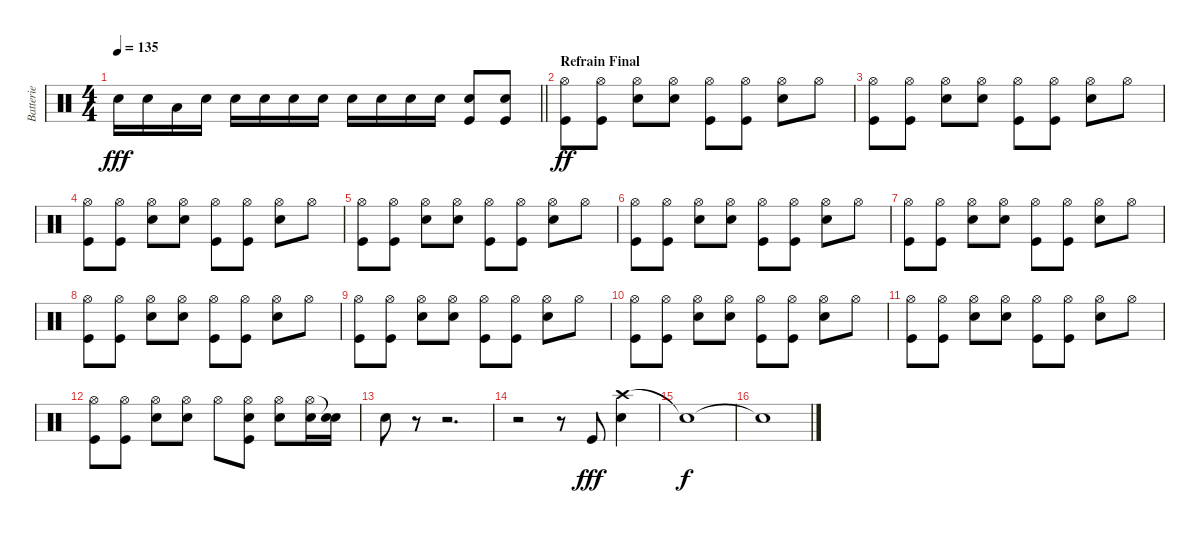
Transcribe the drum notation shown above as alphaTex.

\track ("Batterie" "Batterie") {instrument percussion}
\staff {score}
\articulation defaults
\ts (4 4)
\tempo 135
\clef neutral
\barLineRight lightlight
\ks c "Electric Snare (hit)".16{dy fff} "Electric Snare (hit)".16 "Low Tom (hit)".16 "Electric Snare (hit)".16 "Electric Snare (hit)".16 "Electric Snare (hit)".16 "Electric Snare (hit)".16 "Electric Snare (hit)".16 "Electric Snare (hit)".16 "Electric Snare (hit)".16 "Electric Snare (hit)".16 "Electric Snare (hit)".16
("Electric Snare (hit)" "Kick (hit)").8 ("Electric Snare (hit)" "Kick (hit)").8 |
\section ("" "Refrain Final")
("Hi-Hat (open)" "Kick (hit)").8{dy ff} ("Hi-Hat (open)" "Kick (hit)").8 ("Hi-Hat (open)" "Electric Snare (hit)").8 ("Hi-Hat (open)" "Electric Snare (hit)").8 ("Hi-Hat (open)" "Kick (hit)").8 ("Hi-Hat (open)" "Kick (hit)").8 ("Hi-Hat (open)" "Electric Snare (hit)").8 "Hi-Hat (open)".8 |
("Hi-Hat (open)" "Kick (hit)").8 ("Hi-Hat (open)" "Kick (hit)").8 ("Hi-Hat (open)" "Electric Snare (hit)").8 ("Hi-Hat (open)" "Electric Snare (hit)").8 ("Hi-Hat (open)" "Kick (hit)").8 ("Hi-Hat (open)" "Kick (hit)").8 ("Hi-Hat (open)" "Electric Snare (hit)").8 "Hi-Hat (open)".8 |
("Hi-Hat (open)" "Kick (hit)").8 ("Hi-Hat (open)" "Kick (hit)").8 ("Hi-Hat (open)" "Electric Snare (hit)").8 ("Hi-Hat (open)" "Electric Snare (hit)").8 ("Hi-Hat (open)" "Kick (hit)").8 ("Hi-Hat (open)" "Kick (hit)").8 ("Hi-Hat (open)" "Electric Snare (hit)").8 "Hi-Hat (open)".8 |
("Hi-Hat (open)" "Kick (hit)").8 ("Hi-Hat (open)" "Kick (hit)").8 ("Hi-Hat (open)" "Electric Snare (hit)").8 ("Hi-Hat (open)" "Electric Snare (hit)").8 ("Hi-Hat (open)" "Kick (hit)").8 ("Hi-Hat (open)" "Kick (hit)").8 ("Hi-Hat (open)" "Electric Snare (hit)").8 "Hi-Hat (open)".8 |
("Hi-Hat (open)" "Kick (hit)").8 ("Hi-Hat (open)" "Kick (hit)").8 ("Hi-Hat (open)" "Electric Snare (hit)").8 ("Hi-Hat (open)" "Electric Snare (hit)").8 ("Hi-Hat (open)" "Kick (hit)").8 ("Hi-Hat (open)" "Kick (hit)").8 ("Hi-Hat (open)" "Electric Snare (hit)").8 "Hi-Hat (open)".8 |
("Hi-Hat (open)" "Kick (hit)").8 ("Hi-Hat (open)" "Kick (hit)").8 ("Hi-Hat (open)" "Electric Snare (hit)").8 ("Hi-Hat (open)" "Electric Snare (hit)").8 ("Hi-Hat (open)" "Kick (hit)").8 ("Hi-Hat (open)" "Kick (hit)").8 ("Hi-Hat (open)" "Electric Snare (hit)").8 "Hi-Hat (open)".8 |
("Hi-Hat (open)" "Kick (hit)").8 ("Hi-Hat (open)" "Kick (hit)").8 ("Hi-Hat (open)" "Electric Snare (hit)").8 ("Hi-Hat (open)" "Electric Snare (hit)").8 ("Hi-Hat (open)" "Kick (hit)").8 ("Hi-Hat (open)" "Kick (hit)").8 ("Hi-Hat (open)" "Electric Snare (hit)").8 "Hi-Hat (open)".8 |
("Hi-Hat (open)" "Kick (hit)").8 ("Hi-Hat (open)" "Kick (hit)").8 ("Hi-Hat (open)" "Electric Snare (hit)").8 ("Hi-Hat (open)" "Electric Snare (hit)").8 ("Hi-Hat (open)" "Kick (hit)").8 ("Hi-Hat (open)" "Kick (hit)").8 ("Hi-Hat (open)" "Electric Snare (hit)").8 "Hi-Hat (open)".8 |
("Hi-Hat (open)" "Kick (hit)").8 ("Hi-Hat (open)" "Kick (hit)").8 ("Hi-Hat (open)" "Electric Snare (hit)").8 ("Hi-Hat (open)" "Electric Snare (hit)").8 ("Hi-Hat (open)" "Kick (hit)").8 ("Hi-Hat (open)" "Kick (hit)").8 ("Hi-Hat (open)" "Electric Snare (hit)").8 "Hi-Hat (open)".8 |
("Hi-Hat (open)" "Kick (hit)").8 ("Hi-Hat (open)" "Kick (hit)").8 ("Hi-Hat (open)" "Electric Snare (hit)").8 ("Hi-Hat (open)" "Electric Snare (hit)").8 ("Hi-Hat (open)" "Kick (hit)").8 ("Hi-Hat (open)" "Kick (hit)").8 ("Hi-Hat (open)" "Electric Snare (hit)").8 "Hi-Hat (open)".8 |
("Hi-Hat (open)" "Kick (hit)").8 ("Hi-Hat (open)" "Kick (hit)").8 ("Hi-Hat (open)" "Electric Snare (hit)").8 ("Hi-Hat (open)" "Electric Snare (hit)").8 "Hi-Hat (open)".8 ("Hi-Hat (open)" "Electric Snare (hit)" "Kick (hit)").8 ("Hi-Hat (open)" "Electric Snare (hit)").8 ("Hi-Hat (open)" "Electric Snare (hit)").16 ("Snare (hit)"{t} "Electric Snare (hit)").16 |
"Electric Snare (hit)".8 r.8 r.2{d} |
r.2 r.8 "Kick (hit)".8{dy fff} ("Crash high (hit)" "Electric Snare (hit)").4 |
"Snare (hit)"{t}.1{dy f} |
"Snare (hit)"{t}.1
